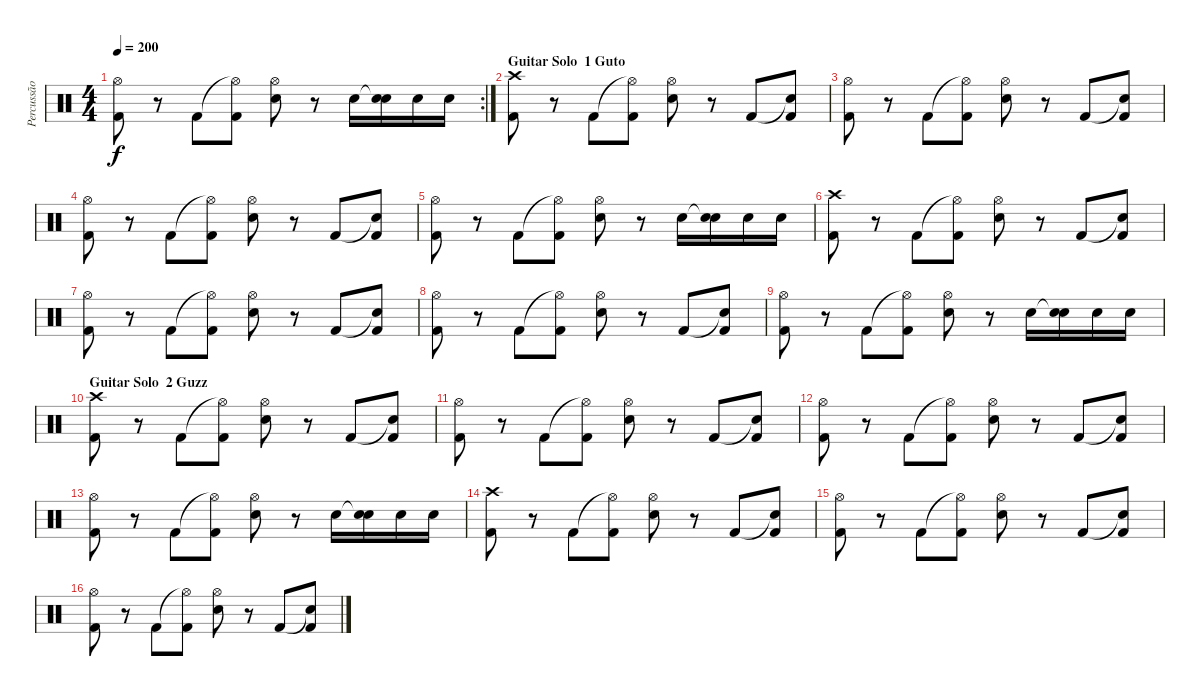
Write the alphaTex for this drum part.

\track ("Percussão" "Percussão") {instrument percussion}
\staff {score}
\articulation defaults
\rc 2
\ts (4 4)
\tempo 200
\clef neutral
\ks c
("Hi-Hat (open)" "Kick (hit) 2").8{dy f} r.8 "Kick (hit) 2".8 ("Hi-Hat (open)"{t} "Kick (hit) 2").8 ("Hi-Hat (open)" "Electric Snare (hit)").8 r.8 "Electric Snare (hit)".16 ("Snare (hit)"{t} "Electric Snare (hit)").16 "Electric Snare (hit)".16 "Electric Snare (hit)".16 |
\section ("" "Guitar Solo  1 Guto")
("Crash high (hit)" "Kick (hit) 2").8 r.8 "Kick (hit) 2".8 ("Hi-Hat (open)"{t} "Kick (hit) 2").8 ("Hi-Hat (open)" "Electric Snare (hit)").8 r.8 "Kick (hit) 2".8 ("Snare (hit)"{t} "Kick (hit) 2").8 |
("Hi-Hat (open)" "Kick (hit) 2").8 r.8 "Kick (hit) 2".8 ("Hi-Hat (open)"{t} "Kick (hit) 2").8 ("Hi-Hat (open)" "Electric Snare (hit)").8 r.8 "Kick (hit) 2".8 ("Snare (hit)"{t} "Kick (hit) 2").8 |
("Hi-Hat (open)" "Kick (hit) 2").8 r.8 "Kick (hit) 2".8 ("Hi-Hat (open)"{t} "Kick (hit) 2").8 ("Hi-Hat (open)" "Electric Snare (hit)").8 r.8 "Kick (hit) 2".8 ("Snare (hit)"{t} "Kick (hit) 2").8 |
("Hi-Hat (open)" "Kick (hit) 2").8 r.8 "Kick (hit) 2".8 ("Hi-Hat (open)"{t} "Kick (hit) 2").8 ("Hi-Hat (open)" "Electric Snare (hit)").8 r.8 "Electric Snare (hit)".16 ("Snare (hit)"{t} "Electric Snare (hit)").16 "Electric Snare (hit)".16 "Electric Snare (hit)".16 |
("Crash high (hit)" "Kick (hit) 2").8 r.8 "Kick (hit) 2".8 ("Hi-Hat (open)"{t} "Kick (hit) 2").8 ("Hi-Hat (open)" "Electric Snare (hit)").8 r.8 "Kick (hit) 2".8 ("Snare (hit)"{t} "Kick (hit) 2").8 |
("Hi-Hat (open)" "Kick (hit) 2").8 r.8 "Kick (hit) 2".8 ("Hi-Hat (open)"{t} "Kick (hit) 2").8 ("Hi-Hat (open)" "Electric Snare (hit)").8 r.8 "Kick (hit) 2".8 ("Snare (hit)"{t} "Kick (hit) 2").8 |
("Hi-Hat (open)" "Kick (hit) 2").8 r.8 "Kick (hit) 2".8 ("Hi-Hat (open)"{t} "Kick (hit) 2").8 ("Hi-Hat (open)" "Electric Snare (hit)").8 r.8 "Kick (hit) 2".8 ("Snare (hit)"{t} "Kick (hit) 2").8 |
("Hi-Hat (open)" "Kick (hit) 2").8 r.8 "Kick (hit) 2".8 ("Hi-Hat (open)"{t} "Kick (hit) 2").8 ("Hi-Hat (open)" "Electric Snare (hit)").8 r.8 "Electric Snare (hit)".16 ("Snare (hit)"{t} "Electric Snare (hit)").16 "Electric Snare (hit)".16 "Electric Snare (hit)".16 |
\section ("" "Guitar Solo  2 Guzz")
("Crash high (hit)" "Kick (hit) 2").8 r.8 "Kick (hit) 2".8 ("Hi-Hat (open)"{t} "Kick (hit) 2").8 ("Hi-Hat (open)" "Electric Snare (hit)").8 r.8 "Kick (hit) 2".8 ("Snare (hit)"{t} "Kick (hit) 2").8 |
("Hi-Hat (open)" "Kick (hit) 2").8 r.8 "Kick (hit) 2".8 ("Hi-Hat (open)"{t} "Kick (hit) 2").8 ("Hi-Hat (open)" "Electric Snare (hit)").8 r.8 "Kick (hit) 2".8 ("Snare (hit)"{t} "Kick (hit) 2").8 |
("Hi-Hat (open)" "Kick (hit) 2").8 r.8 "Kick (hit) 2".8 ("Hi-Hat (open)"{t} "Kick (hit) 2").8 ("Hi-Hat (open)" "Electric Snare (hit)").8 r.8 "Kick (hit) 2".8 ("Snare (hit)"{t} "Kick (hit) 2").8 |
("Hi-Hat (open)" "Kick (hit) 2").8 r.8 "Kick (hit) 2".8 ("Hi-Hat (open)"{t} "Kick (hit) 2").8 ("Hi-Hat (open)" "Electric Snare (hit)").8 r.8 "Electric Snare (hit)".16 ("Snare (hit)"{t} "Electric Snare (hit)").16 "Electric Snare (hit)".16 "Electric Snare (hit)".16 |
("Crash high (hit)" "Kick (hit) 2").8 r.8 "Kick (hit) 2".8 ("Hi-Hat (open)"{t} "Kick (hit) 2").8 ("Hi-Hat (open)" "Electric Snare (hit)").8 r.8 "Kick (hit) 2".8 ("Snare (hit)"{t} "Kick (hit) 2").8 |
("Hi-Hat (open)" "Kick (hit) 2").8 r.8 "Kick (hit) 2".8 ("Hi-Hat (open)"{t} "Kick (hit) 2").8 ("Hi-Hat (open)" "Electric Snare (hit)").8 r.8 "Kick (hit) 2".8 ("Snare (hit)"{t} "Kick (hit) 2").8 |
("Hi-Hat (open)" "Kick (hit) 2").8 r.8 "Kick (hit) 2".8 ("Hi-Hat (open)"{t} "Kick (hit) 2").8 ("Hi-Hat (open)" "Electric Snare (hit)").8 r.8 "Kick (hit) 2".8 ("Snare (hit)"{t} "Kick (hit) 2").8
